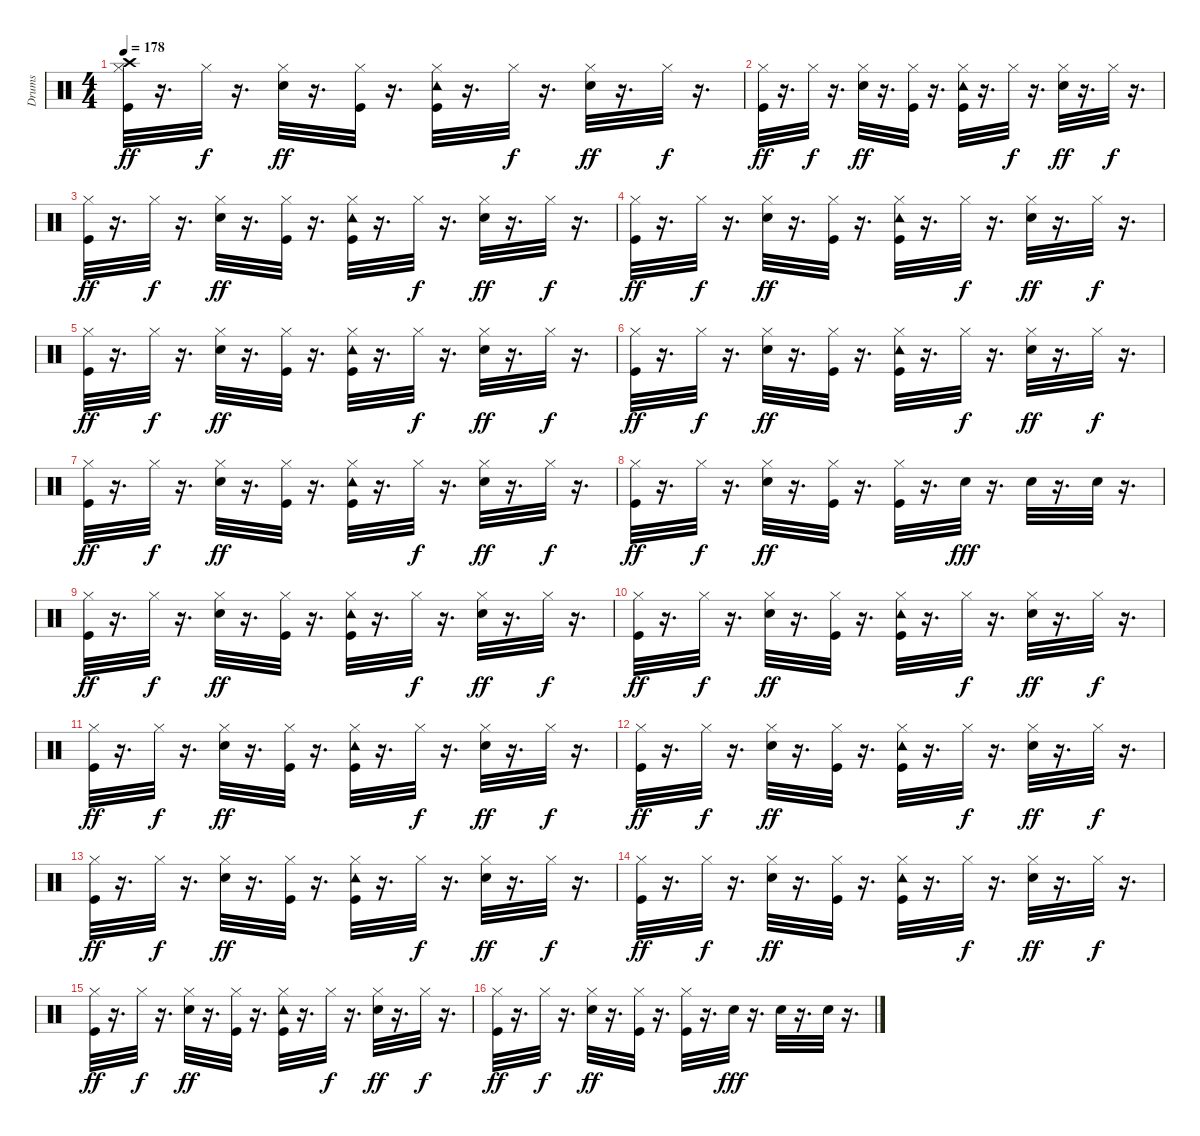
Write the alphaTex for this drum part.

\track ("Drums" "Drums") {instrument percussion}
\staff {score}
\articulation defaults
\ts (4 4)
\tempo 178
\clef neutral
\ks c
("Kick (hit)" "Crash high (hit)" "Hi-Hat (closed)").32{dy ff} r.16{d} "Hi-Hat (closed)".32{dy f} r.16{d} ("Snare (hit) 2" "Hi-Hat (closed)").32{dy ff} r.16{d} ("Hi-Hat (closed)" "Kick (hit)").32 r.16{d} ("Kick (hit)" "Tambourine (hit)" "Hi-Hat (closed)").32 r.16{d} "Hi-Hat (closed)".32{dy f} r.16{d} ("Snare (hit) 2" "Hi-Hat (closed)").32{dy ff} r.16{d} "Hi-Hat (closed)".32{dy f} r.16{d} |
("Kick (hit)" "Hi-Hat (closed)").32{dy ff} r.16{d} "Hi-Hat (closed)".32{dy f} r.16{d} ("Snare (hit) 2" "Hi-Hat (closed)").32{dy ff} r.16{d} ("Hi-Hat (closed)" "Kick (hit)").32 r.16{d} ("Kick (hit)" "Tambourine (hit)" "Hi-Hat (closed)").32 r.16{d} "Hi-Hat (closed)".32{dy f} r.16{d} ("Snare (hit) 2" "Hi-Hat (closed)").32{dy ff} r.16{d} "Hi-Hat (closed)".32{dy f} r.16{d} |
("Kick (hit)" "Hi-Hat (closed)").32{dy ff} r.16{d} "Hi-Hat (closed)".32{dy f} r.16{d} ("Snare (hit) 2" "Hi-Hat (closed)").32{dy ff} r.16{d} ("Hi-Hat (closed)" "Kick (hit)").32 r.16{d} ("Kick (hit)" "Tambourine (hit)" "Hi-Hat (closed)").32 r.16{d} "Hi-Hat (closed)".32{dy f} r.16{d} ("Snare (hit) 2" "Hi-Hat (closed)").32{dy ff} r.16{d} "Hi-Hat (closed)".32{dy f} r.16{d} |
("Kick (hit)" "Hi-Hat (closed)").32{dy ff} r.16{d} "Hi-Hat (closed)".32{dy f} r.16{d} ("Snare (hit) 2" "Hi-Hat (closed)").32{dy ff} r.16{d} ("Hi-Hat (closed)" "Kick (hit)").32 r.16{d} ("Kick (hit)" "Tambourine (hit)" "Hi-Hat (closed)").32 r.16{d} "Hi-Hat (closed)".32{dy f} r.16{d} ("Snare (hit) 2" "Hi-Hat (closed)").32{dy ff} r.16{d} "Hi-Hat (closed)".32{dy f} r.16{d} |
("Kick (hit)" "Hi-Hat (closed)").32{dy ff} r.16{d} "Hi-Hat (closed)".32{dy f} r.16{d} ("Snare (hit) 2" "Hi-Hat (closed)").32{dy ff} r.16{d} ("Hi-Hat (closed)" "Kick (hit)").32 r.16{d} ("Kick (hit)" "Tambourine (hit)" "Hi-Hat (closed)").32 r.16{d} "Hi-Hat (closed)".32{dy f} r.16{d} ("Snare (hit) 2" "Hi-Hat (closed)").32{dy ff} r.16{d} "Hi-Hat (closed)".32{dy f} r.16{d} |
("Kick (hit)" "Hi-Hat (closed)").32{dy ff} r.16{d} "Hi-Hat (closed)".32{dy f} r.16{d} ("Snare (hit) 2" "Hi-Hat (closed)").32{dy ff} r.16{d} ("Hi-Hat (closed)" "Kick (hit)").32 r.16{d} ("Kick (hit)" "Tambourine (hit)" "Hi-Hat (closed)").32 r.16{d} "Hi-Hat (closed)".32{dy f} r.16{d} ("Snare (hit) 2" "Hi-Hat (closed)").32{dy ff} r.16{d} "Hi-Hat (closed)".32{dy f} r.16{d} |
("Kick (hit)" "Hi-Hat (closed)").32{dy ff} r.16{d} "Hi-Hat (closed)".32{dy f} r.16{d} ("Snare (hit) 2" "Hi-Hat (closed)").32{dy ff} r.16{d} ("Hi-Hat (closed)" "Kick (hit)").32 r.16{d} ("Kick (hit)" "Tambourine (hit)" "Hi-Hat (closed)").32 r.16{d} "Hi-Hat (closed)".32{dy f} r.16{d} ("Snare (hit) 2" "Hi-Hat (closed)").32{dy ff} r.16{d} "Hi-Hat (closed)".32{dy f} r.16{d} |
("Kick (hit)" "Hi-Hat (closed)").32{dy ff} r.16{d} "Hi-Hat (closed)".32{dy f} r.16{d} ("Snare (hit) 2" "Hi-Hat (closed)").32{dy ff} r.16{d} ("Hi-Hat (closed)" "Kick (hit)").32 r.16{d} ("Kick (hit)" "Hi-Hat (closed)").32 r.16{d} "Snare (hit) 2".32{dy fff} r.16{d} "Snare (hit) 2".32 r.16{d} "Snare (hit) 2".32 r.16{d} |
("Kick (hit)" "Hi-Hat (closed)").32{dy ff} r.16{d} "Hi-Hat (closed)".32{dy f} r.16{d} ("Snare (hit) 2" "Hi-Hat (closed)").32{dy ff} r.16{d} ("Hi-Hat (closed)" "Kick (hit)").32 r.16{d} ("Kick (hit)" "Tambourine (hit)" "Hi-Hat (closed)").32 r.16{d} "Hi-Hat (closed)".32{dy f} r.16{d} ("Snare (hit) 2" "Hi-Hat (closed)").32{dy ff} r.16{d} "Hi-Hat (closed)".32{dy f} r.16{d} |
("Kick (hit)" "Hi-Hat (closed)").32{dy ff} r.16{d} "Hi-Hat (closed)".32{dy f} r.16{d} ("Snare (hit) 2" "Hi-Hat (closed)").32{dy ff} r.16{d} ("Hi-Hat (closed)" "Kick (hit)").32 r.16{d} ("Kick (hit)" "Tambourine (hit)" "Hi-Hat (closed)").32 r.16{d} "Hi-Hat (closed)".32{dy f} r.16{d} ("Snare (hit) 2" "Hi-Hat (closed)").32{dy ff} r.16{d} "Hi-Hat (closed)".32{dy f} r.16{d} |
("Kick (hit)" "Hi-Hat (closed)").32{dy ff} r.16{d} "Hi-Hat (closed)".32{dy f} r.16{d} ("Snare (hit) 2" "Hi-Hat (closed)").32{dy ff} r.16{d} ("Hi-Hat (closed)" "Kick (hit)").32 r.16{d} ("Kick (hit)" "Tambourine (hit)" "Hi-Hat (closed)").32 r.16{d} "Hi-Hat (closed)".32{dy f} r.16{d} ("Snare (hit) 2" "Hi-Hat (closed)").32{dy ff} r.16{d} "Hi-Hat (closed)".32{dy f} r.16{d} |
("Kick (hit)" "Hi-Hat (closed)").32{dy ff} r.16{d} "Hi-Hat (closed)".32{dy f} r.16{d} ("Snare (hit) 2" "Hi-Hat (closed)").32{dy ff} r.16{d} ("Hi-Hat (closed)" "Kick (hit)").32 r.16{d} ("Kick (hit)" "Tambourine (hit)" "Hi-Hat (closed)").32 r.16{d} "Hi-Hat (closed)".32{dy f} r.16{d} ("Snare (hit) 2" "Hi-Hat (closed)").32{dy ff} r.16{d} "Hi-Hat (closed)".32{dy f} r.16{d} |
("Kick (hit)" "Hi-Hat (closed)").32{dy ff} r.16{d} "Hi-Hat (closed)".32{dy f} r.16{d} ("Snare (hit) 2" "Hi-Hat (closed)").32{dy ff} r.16{d} ("Hi-Hat (closed)" "Kick (hit)").32 r.16{d} ("Kick (hit)" "Tambourine (hit)" "Hi-Hat (closed)").32 r.16{d} "Hi-Hat (closed)".32{dy f} r.16{d} ("Snare (hit) 2" "Hi-Hat (closed)").32{dy ff} r.16{d} "Hi-Hat (closed)".32{dy f} r.16{d} |
("Kick (hit)" "Hi-Hat (closed)").32{dy ff} r.16{d} "Hi-Hat (closed)".32{dy f} r.16{d} ("Snare (hit) 2" "Hi-Hat (closed)").32{dy ff} r.16{d} ("Hi-Hat (closed)" "Kick (hit)").32 r.16{d} ("Kick (hit)" "Tambourine (hit)" "Hi-Hat (closed)").32 r.16{d} "Hi-Hat (closed)".32{dy f} r.16{d} ("Snare (hit) 2" "Hi-Hat (closed)").32{dy ff} r.16{d} "Hi-Hat (closed)".32{dy f} r.16{d} |
("Kick (hit)" "Hi-Hat (closed)").32{dy ff} r.16{d} "Hi-Hat (closed)".32{dy f} r.16{d} ("Snare (hit) 2" "Hi-Hat (closed)").32{dy ff} r.16{d} ("Hi-Hat (closed)" "Kick (hit)").32 r.16{d} ("Kick (hit)" "Tambourine (hit)" "Hi-Hat (closed)").32 r.16{d} "Hi-Hat (closed)".32{dy f} r.16{d} ("Snare (hit) 2" "Hi-Hat (closed)").32{dy ff} r.16{d} "Hi-Hat (closed)".32{dy f} r.16{d} |
("Kick (hit)" "Hi-Hat (closed)").32{dy ff} r.16{d} "Hi-Hat (closed)".32{dy f} r.16{d} ("Snare (hit) 2" "Hi-Hat (closed)").32{dy ff} r.16{d} ("Hi-Hat (closed)" "Kick (hit)").32 r.16{d} ("Kick (hit)" "Hi-Hat (closed)").32 r.16{d} "Snare (hit) 2".32{dy fff} r.16{d} "Snare (hit) 2".32 r.16{d} "Snare (hit) 2".32 r.16{d}
